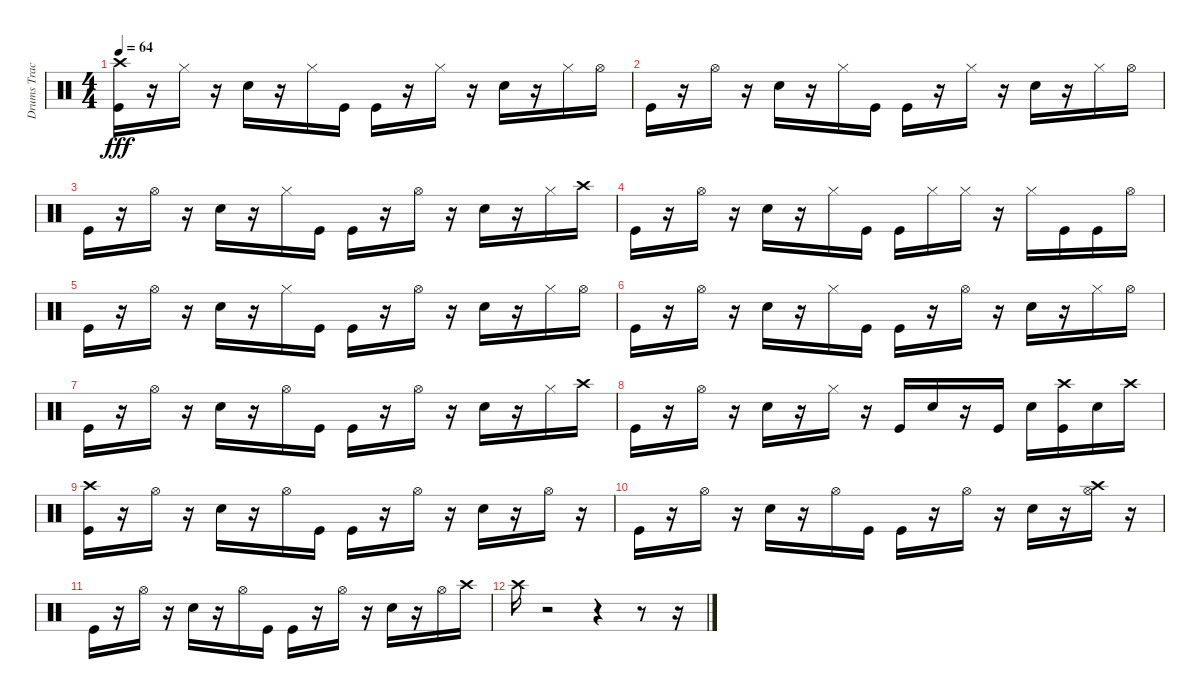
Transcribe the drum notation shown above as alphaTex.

\track ("Drums Track" "Drums Trac") {instrument percussion}
\staff {score}
\articulation defaults
\ts (4 4)
\tempo 64
\clef neutral
\ks c
("Kick (hit)" "Crash high (hit)").16{dy fff} r.16 "Hi-Hat (closed)".16 r.16 "Snare (hit) 2".16 r.16 "Hi-Hat (closed)".16 "Kick (hit)".16 "Kick (hit)".16 r.16 "Hi-Hat (closed)".16 r.16 "Snare (hit) 2".16 r.16 "Hi-Hat (closed)".16 "Hi-Hat (open)".16 |
"Kick (hit)".16 r.16 "Hi-Hat (open)".16 r.16 "Snare (hit) 2".16 r.16 "Hi-Hat (closed)".16 "Kick (hit)".16 "Kick (hit)".16 r.16 "Hi-Hat (closed)".16 r.16 "Snare (hit) 2".16 r.16 "Hi-Hat (closed)".16 "Hi-Hat (open)".16 |
"Kick (hit)".16 r.16 "Hi-Hat (open)".16 r.16 "Snare (hit) 2".16 r.16 "Hi-Hat (closed)".16 "Kick (hit)".16 "Kick (hit)".16 r.16 "Hi-Hat (open)".16 r.16 "Snare (hit) 2".16 r.16 "Hi-Hat (closed)".16 "Crash high (hit)".16 |
"Kick (hit)".16 r.16 "Hi-Hat (open)".16 r.16 "Snare (hit) 2".16 r.16 "Hi-Hat (closed)".16 "Kick (hit)".16 "Kick (hit)".16 "Hi-Hat (closed)".16 "Hi-Hat (closed)".16 r.16 "Hi-Hat (closed)".16 "Kick (hit)".16 "Kick (hit)".16 "Hi-Hat (open)".16 |
"Kick (hit)".16 r.16 "Hi-Hat (open)".16 r.16 "Snare (hit) 2".16 r.16 "Hi-Hat (closed)".16 "Kick (hit)".16 "Kick (hit)".16 r.16 "Hi-Hat (open)".16 r.16 "Snare (hit) 2".16 r.16 "Hi-Hat (closed)".16 "Hi-Hat (open)".16 |
"Kick (hit)".16 r.16 "Hi-Hat (open)".16 r.16 "Snare (hit) 2".16 r.16 "Hi-Hat (closed)".16 "Kick (hit)".16 "Kick (hit)".16 r.16 "Hi-Hat (open)".16 r.16 "Snare (hit) 2".16 r.16 "Hi-Hat (closed)".16 "Hi-Hat (open)".16 |
"Kick (hit)".16 r.16 "Hi-Hat (open)".16 r.16 "Snare (hit) 2".16 r.16 "Hi-Hat (open)".16 "Kick (hit)".16 "Kick (hit)".16 r.16 "Hi-Hat (open)".16 r.16 "Snare (hit) 2".16 r.16 "Hi-Hat (closed)".16 "Crash high (hit)".16 |
"Kick (hit)".16 r.16 "Hi-Hat (open)".16 r.16 "Snare (hit) 2".16 r.16 "Hi-Hat (closed)".16 r.16 "Kick (hit)".16 "Snare (hit) 2".16 r.16 "Kick (hit)".16 "Snare (hit) 2".16 ("Kick (hit)" "Crash high (hit)").16 "Snare (hit) 2".16 "Crash high (hit)".16 |
("Crash high (hit)" "Kick (hit)").16 r.16 "Hi-Hat (open)".16 r.16 "Snare (hit) 2".16 r.16 "Hi-Hat (open)".16 "Kick (hit)".16 "Kick (hit)".16 r.16 "Hi-Hat (open)".16 r.16 "Snare (hit) 2".16 r.16 "Hi-Hat (open)".16 r.16 |
"Kick (hit)".16 r.16 "Hi-Hat (open)".16 r.16 "Snare (hit) 2".16 r.16 "Hi-Hat (open)".16 "Kick (hit)".16 "Kick (hit)".16 r.16 "Hi-Hat (open)".16 r.16 "Snare (hit) 2".16 r.16 ("Hi-Hat (open)" "Crash high (hit)").16 r.16 |
"Kick (hit)".16 r.16 "Hi-Hat (open)".16 r.16 "Snare (hit) 2".16 r.16 "Hi-Hat (open)".16 "Kick (hit)".16 "Kick (hit)".16 r.16 "Hi-Hat (open)".16 r.16 "Snare (hit) 2".16 r.16 "Hi-Hat (open)".16 "Crash high (hit)".16 |
"Crash high (hit)".16 r.2 r.4 r.8 r.16
